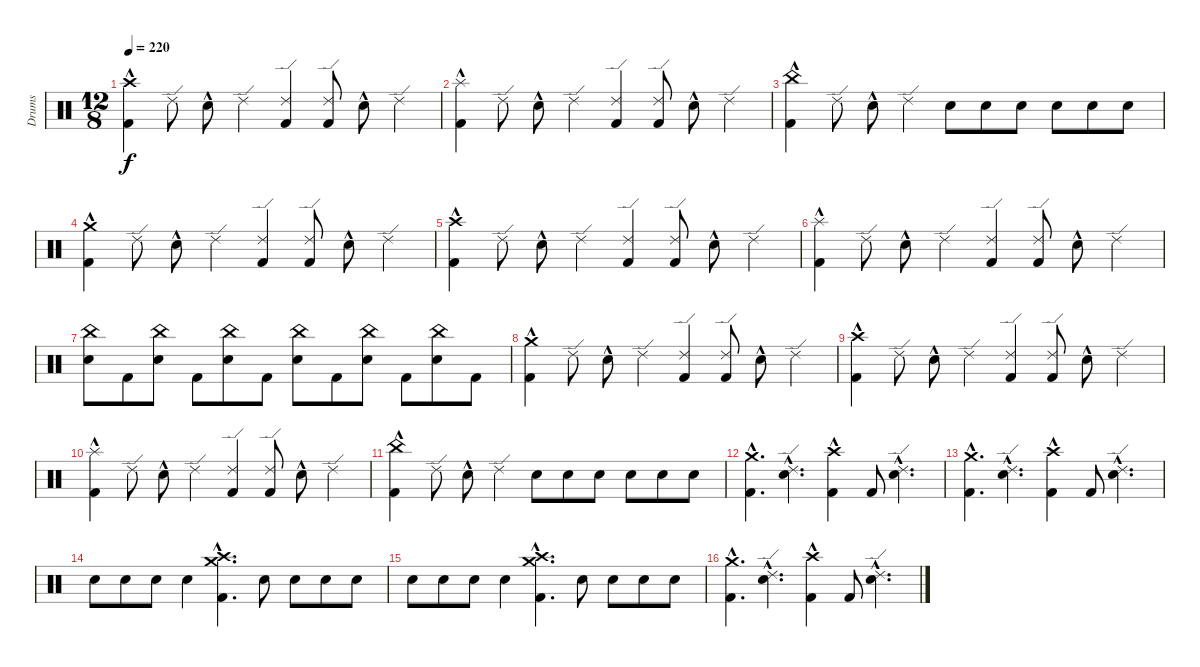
\track ("Drums" "Drums") {instrument percussion}
\staff {score}
\articulation defaults
\ts (12 8)
\tempo 220
\clef neutral
\ks c
("Kick (hit) 2"{hac} "Crash high (hit)").4{dy f} "Ride (edge) 2".8 "Snare (hit) 2"{hac}.8 "Ride (edge) 2".4 ("Kick (hit) 2" "Ride (edge) 2").4 ("Kick (hit) 2" "Ride (edge) 2").8 "Snare (hit) 2"{hac}.8 "Ride (edge) 2".4 |
("Splash (hit)" "Kick (hit) 2"{hac}).4 "Ride (edge) 2".8 "Snare (hit) 2"{hac}.8 "Ride (edge) 2".4 ("Kick (hit) 2" "Ride (edge) 2").4 ("Kick (hit) 2" "Ride (edge) 2").8 "Snare (hit) 2"{hac}.8 "Ride (edge) 2".4 |
("China (hit)" "Kick (hit) 2"{hac}).4 "Ride (edge) 2".8 "Snare (hit) 2"{hac}.8 "Ride (edge) 2".4 "Snare (hit) 2".8 "Snare (hit) 2".8 "Snare (hit) 2".8 "Snare (hit) 2".8 "Snare (hit) 2".8 "Snare (hit) 2".8 |
("Kick (hit) 2"{hac} "Crash medium (hit)").4 "Ride (edge) 2".8 "Snare (hit) 2"{hac}.8 "Ride (edge) 2".4 ("Kick (hit) 2" "Ride (edge) 2").4 ("Kick (hit) 2" "Ride (edge) 2").8 "Snare (hit) 2"{hac}.8 "Ride (edge) 2".4 |
("Kick (hit) 2"{hac} "Crash high (hit)").4 "Ride (edge) 2".8 "Snare (hit) 2"{hac}.8 "Ride (edge) 2".4 ("Kick (hit) 2" "Ride (edge) 2").4 ("Kick (hit) 2" "Ride (edge) 2").8 "Snare (hit) 2"{hac}.8 "Ride (edge) 2".4 |
("Splash (hit)" "Kick (hit) 2"{hac}).4 "Ride (edge) 2".8 "Snare (hit) 2"{hac}.8 "Ride (edge) 2".4 ("Kick (hit) 2" "Ride (edge) 2").4 ("Kick (hit) 2" "Ride (edge) 2").8 "Snare (hit) 2"{hac}.8 "Ride (edge) 2".4 |
("Snare (hit) 2" "China (hit)").8 "Kick (hit) 2".8 ("Snare (hit) 2" "China (hit)").8 "Kick (hit) 2".8 ("Snare (hit) 2" "China (hit)").8 "Kick (hit) 2".8 ("Snare (hit) 2" "China (hit)").8 "Kick (hit) 2".8 ("Snare (hit) 2" "China (hit)").8 "Kick (hit) 2".8 ("Snare (hit) 2" "China (hit)").8 "Kick (hit) 2".8 |
("Kick (hit) 2"{hac} "Crash medium (hit)").4 "Ride (edge) 2".8 "Snare (hit) 2"{hac}.8 "Ride (edge) 2".4 ("Kick (hit) 2" "Ride (edge) 2").4 ("Kick (hit) 2" "Ride (edge) 2").8 "Snare (hit) 2"{hac}.8 "Ride (edge) 2".4 |
("Kick (hit) 2"{hac} "Crash high (hit)").4 "Ride (edge) 2".8 "Snare (hit) 2"{hac}.8 "Ride (edge) 2".4 ("Kick (hit) 2" "Ride (edge) 2").4 ("Kick (hit) 2" "Ride (edge) 2").8 "Snare (hit) 2"{hac}.8 "Ride (edge) 2".4 |
("Splash (hit)" "Kick (hit) 2"{hac}).4 "Ride (edge) 2".8 "Snare (hit) 2"{hac}.8 "Ride (edge) 2".4 ("Kick (hit) 2" "Ride (edge) 2").4 ("Kick (hit) 2" "Ride (edge) 2").8 "Snare (hit) 2"{hac}.8 "Ride (edge) 2".4 |
("China (hit)" "Kick (hit) 2"{hac}).4 "Ride (edge) 2".8 "Snare (hit) 2"{hac}.8 "Ride (edge) 2".4 "Snare (hit) 2".8 "Snare (hit) 2".8 "Snare (hit) 2".8 "Snare (hit) 2".8 "Snare (hit) 2".8 "Snare (hit) 2".8 |
("Kick (hit) 2"{hac} "Crash medium (hit)"{hac}).4{d} ("Ride (edge) 2"{hac} "Snare (hit) 2"{hac}).4{d} ("Kick (hit) 2" "Crash high (hit)"{hac}).4 "Kick (hit) 2".8 ("Ride (edge) 2"{hac} "Snare (hit) 2"{hac}).4{d} |
("Kick (hit) 2"{hac} "Crash medium (hit)"{hac}).4{d} ("Ride (edge) 2"{hac} "Snare (hit) 2"{hac}).4{d} ("Kick (hit) 2" "Crash high (hit)"{hac}).4 "Kick (hit) 2".8 ("Ride (edge) 2"{hac} "Snare (hit) 2"{hac}).4{d} |
"Snare (hit) 2".8 "Snare (hit) 2".8 "Snare (hit) 2".8 "Snare (hit) 2".4 ("Crash medium (hit)"{hac} "Crash high (hit)"{hac} "Kick (hit) 2"{hac}).4{d} "Snare (hit) 2".8 "Snare (hit) 2".8 "Snare (hit) 2".8 "Snare (hit) 2".8 |
"Snare (hit) 2".8 "Snare (hit) 2".8 "Snare (hit) 2".8 "Snare (hit) 2".4 ("Crash medium (hit)"{hac} "Crash high (hit)"{hac} "Kick (hit) 2"{hac}).4{d} "Snare (hit) 2".8 "Snare (hit) 2".8 "Snare (hit) 2".8 "Snare (hit) 2".8 |
("Kick (hit) 2"{hac} "Crash medium (hit)"{hac}).4{d} ("Ride (edge) 2"{hac} "Snare (hit) 2"{hac}).4{d} ("Kick (hit) 2" "Crash high (hit)"{hac}).4 "Kick (hit) 2".8 ("Ride (edge) 2"{hac} "Snare (hit) 2"{hac}).4{d}
